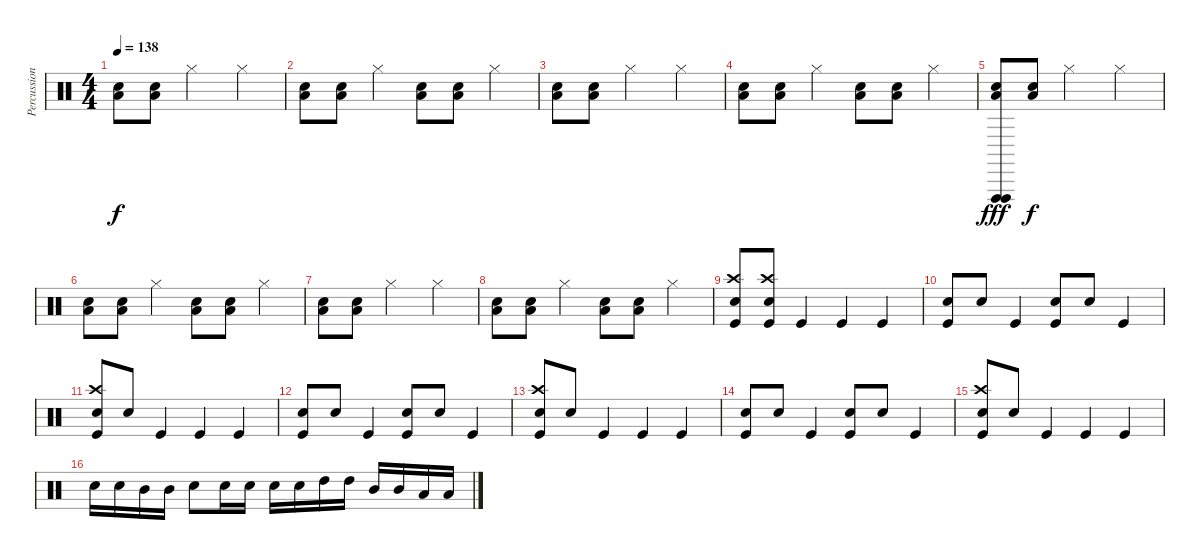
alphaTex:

\track ("Percussion" "Percussion") {instrument percussion}
\staff {score}
\articulation defaults
\ts (4 4)
\tempo 138
\clef neutral
\ks c
("Low Floor Tom (hit)" "Snare (hit) 2").8{dy f} ("Low Floor Tom (hit)" "Snare (hit) 2").8 "Hi-Hat (closed)".2 "Hi-Hat (closed)".4 |
("Low Floor Tom (hit)" "Snare (hit) 2").8 ("Low Floor Tom (hit)" "Snare (hit) 2").8 "Hi-Hat (closed)".4 ("Low Floor Tom (hit)" "Snare (hit) 2").8 ("Low Floor Tom (hit)" "Snare (hit) 2").8 "Hi-Hat (closed)".4 |
("Low Floor Tom (hit)" "Snare (hit) 2").8 ("Low Floor Tom (hit)" "Snare (hit) 2").8 "Hi-Hat (closed)".2 "Hi-Hat (closed)".4 |
("Low Floor Tom (hit)" "Snare (hit) 2").8 ("Low Floor Tom (hit)" "Snare (hit) 2").8 "Hi-Hat (closed)".4 ("Low Floor Tom (hit)" "Snare (hit) 2").8 ("Low Floor Tom (hit)" "Snare (hit) 2").8 "Hi-Hat (closed)".4 |
("Low Floor Tom (hit)" "Snare (hit) 2" "Vibraslap (hit)" "Vibraslap (hit)").8{dy fff} ("Low Floor Tom (hit)" "Snare (hit) 2").8{dy f} "Hi-Hat (closed)".2 "Hi-Hat (closed)".4 |
("Low Floor Tom (hit)" "Snare (hit) 2").8 ("Low Floor Tom (hit)" "Snare (hit) 2").8 "Hi-Hat (closed)".4 ("Low Floor Tom (hit)" "Snare (hit) 2").8 ("Low Floor Tom (hit)" "Snare (hit) 2").8 "Hi-Hat (closed)".4 |
("Low Floor Tom (hit)" "Snare (hit) 2").8 ("Low Floor Tom (hit)" "Snare (hit) 2").8 "Hi-Hat (closed)".2 "Hi-Hat (closed)".4 |
("Low Floor Tom (hit)" "Snare (hit) 2").8 ("Low Floor Tom (hit)" "Snare (hit) 2").8 "Hi-Hat (closed)".4 ("Low Floor Tom (hit)" "Snare (hit) 2").8 ("Low Floor Tom (hit)" "Snare (hit) 2").8 "Hi-Hat (closed)".4 |
("Snare (hit) 2" "Crash high (hit)" "Kick (hit)").8 ("Snare (hit) 2" "Crash high (hit)" "Kick (hit)").8 "Kick (hit)".4 "Kick (hit)".4 "Kick (hit)".4 |
("Snare (hit) 2" "Kick (hit)").8 "Snare (hit) 2".8 "Kick (hit)".4 ("Snare (hit) 2" "Kick (hit)").8 "Snare (hit) 2".8 "Kick (hit)".4 |
("Snare (hit) 2" "Crash high (hit)" "Kick (hit)").8 "Snare (hit) 2".8 "Kick (hit)".4 "Kick (hit)".4 "Kick (hit)".4 |
("Snare (hit) 2" "Kick (hit)").8 "Snare (hit) 2".8 "Kick (hit)".4 ("Snare (hit) 2" "Kick (hit)").8 "Snare (hit) 2".8 "Kick (hit)".4 |
("Snare (hit) 2" "Crash high (hit)" "Kick (hit)").8 "Snare (hit) 2".8 "Kick (hit)".4 "Kick (hit)".4 "Kick (hit)".4 |
("Snare (hit) 2" "Kick (hit)").8 "Snare (hit) 2".8 "Kick (hit)".4 ("Snare (hit) 2" "Kick (hit)").8 "Snare (hit) 2".8 "Kick (hit)".4 |
("Snare (hit) 2" "Crash high (hit)" "Kick (hit)").8 "Snare (hit) 2".8 "Kick (hit)".4 "Kick (hit)".4 "Kick (hit)".4 |
"Snare (hit) 2".16 "Snare (hit) 2".16 "Mid Tom (hit)".16 "Mid Tom (hit)".16 "Snare (hit) 2".8 "Snare (hit) 2".16 "Snare (hit) 2".16 "Snare (hit) 2".16 "Snare (hit) 2".16 "High Tom (hit)".16 "High Tom (hit)".16 "Mid Tom (hit)".16 "Mid Tom (hit)".16 "Low Tom (hit)".16 "Low Tom (hit)".16
